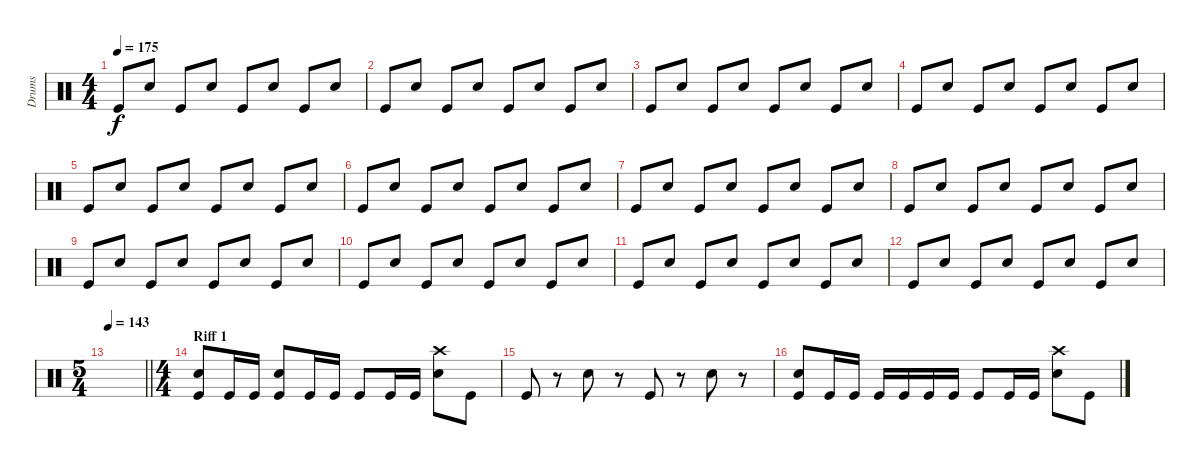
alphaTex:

\track ("Drums" "Drums") {instrument percussion}
\staff {score}
\articulation defaults
\ts (4 4)
\tempo 175
\clef neutral
\ks c "Kick (hit)".8{dy f} "Snare (hit) 2".8 "Kick (hit)".8 "Snare (hit) 2".8 "Kick (hit)".8 "Snare (hit) 2".8 "Kick (hit)".8 "Snare (hit) 2".8
|
"Kick (hit)".8 "Snare (hit) 2".8 "Kick (hit)".8 "Snare (hit) 2".8 "Kick (hit)".8 "Snare (hit) 2".8 "Kick (hit)".8 "Snare (hit) 2".8 |
"Kick (hit)".8 "Snare (hit) 2".8 "Kick (hit)".8 "Snare (hit) 2".8 "Kick (hit)".8 "Snare (hit) 2".8 "Kick (hit)".8 "Snare (hit) 2".8 |
"Kick (hit)".8 "Snare (hit) 2".8 "Kick (hit)".8 "Snare (hit) 2".8 "Kick (hit)".8 "Snare (hit) 2".8 "Kick (hit)".8 "Snare (hit) 2".8 |
"Kick (hit)".8 "Snare (hit) 2".8 "Kick (hit)".8 "Snare (hit) 2".8 "Kick (hit)".8 "Snare (hit) 2".8 "Kick (hit)".8 "Snare (hit) 2".8 |
"Kick (hit)".8 "Snare (hit) 2".8 "Kick (hit)".8 "Snare (hit) 2".8 "Kick (hit)".8 "Snare (hit) 2".8 "Kick (hit)".8 "Snare (hit) 2".8 |
"Kick (hit)".8 "Snare (hit) 2".8 "Kick (hit)".8 "Snare (hit) 2".8 "Kick (hit)".8 "Snare (hit) 2".8 "Kick (hit)".8 "Snare (hit) 2".8 |
"Kick (hit)".8 "Snare (hit) 2".8 "Kick (hit)".8 "Snare (hit) 2".8 "Kick (hit)".8 "Snare (hit) 2".8 "Kick (hit)".8 "Snare (hit) 2".8 |
"Kick (hit)".8 "Snare (hit) 2".8 "Kick (hit)".8 "Snare (hit) 2".8 "Kick (hit)".8 "Snare (hit) 2".8 "Kick (hit)".8 "Snare (hit) 2".8 |
"Kick (hit)".8 "Snare (hit) 2".8 "Kick (hit)".8 "Snare (hit) 2".8 "Kick (hit)".8 "Snare (hit) 2".8 "Kick (hit)".8 "Snare (hit) 2".8 |
"Kick (hit)".8 "Snare (hit) 2".8 "Kick (hit)".8 "Snare (hit) 2".8 "Kick (hit)".8 "Snare (hit) 2".8 "Kick (hit)".8 "Snare (hit) 2".8 |
"Kick (hit)".8 "Snare (hit) 2".8 "Kick (hit)".8 "Snare (hit) 2".8 "Kick (hit)".8 "Snare (hit) 2".8 "Kick (hit)".8 "Snare (hit) 2".8 |
\ts (5 4)
\tempo 143
\barLineRight lightlight
|
\ts (4 4)
\section ("" "Riff 1")
("Snare (hit) 2" "Kick (hit)").8 "Kick (hit)".16 "Kick (hit)".16 ("Snare (hit) 2" "Kick (hit)").8 "Kick (hit)".16 "Kick (hit)".16 "Kick (hit)".8 "Kick (hit)".16 "Kick (hit)".16 ("Crash high (hit)" "Snare (hit) 2").8 "Kick (hit)".8 |
"Kick (hit)".8 r.8 "Snare (hit) 2".8 r.8 "Kick (hit)".8 r.8 "Snare (hit) 2".8 r.8 |
("Snare (hit) 2" "Kick (hit)").8 "Kick (hit)".16 "Kick (hit)".16 "Kick (hit)".16 "Kick (hit)".16 "Kick (hit)".16 "Kick (hit)".16 "Kick (hit)".8 "Kick (hit)".16 "Kick (hit)".16 ("Crash high (hit)" "Snare (hit) 2").8 "Kick (hit)".8
